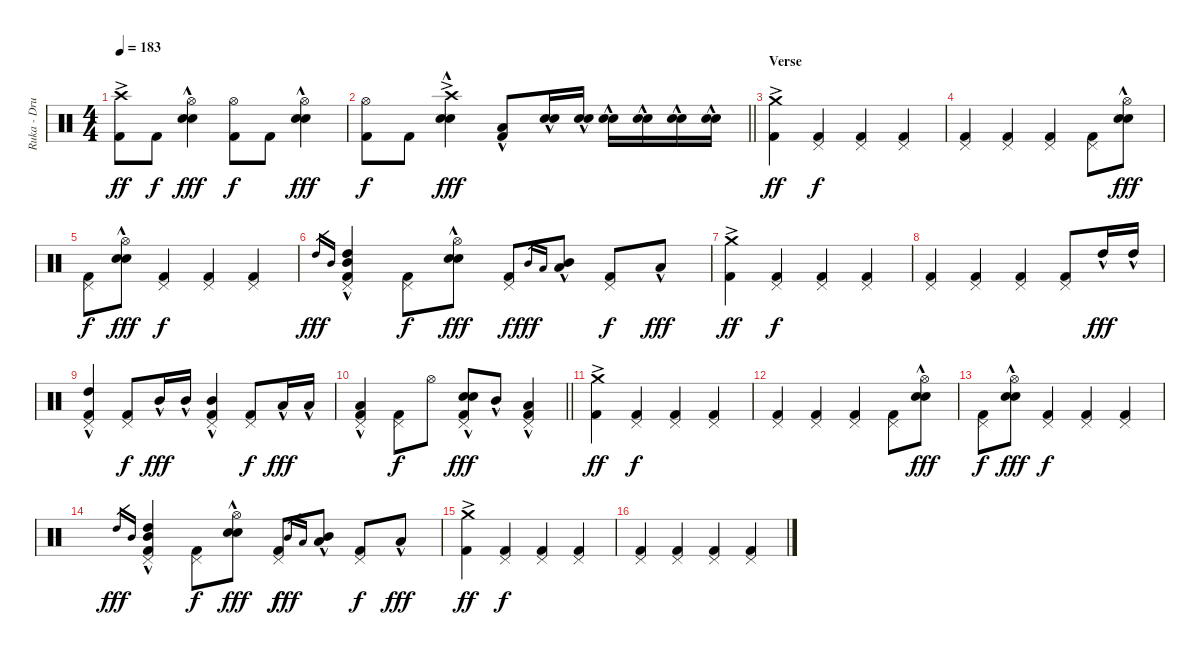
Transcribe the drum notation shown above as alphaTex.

\track ("Ruka - Drums" "Ruka - Dru") {instrument percussion}
\staff {score}
\articulation defaults
\ts (4 4)
\tempo 183
\clef neutral
\ks c
("Crash high (hit)"{ac} "Kick (hit) 2").8{dy ff} "Kick (hit) 2".8{dy f} ("Hi-Hat (open)" "Electric Snare (hit)"{hac} "Snare (hit) 2"{hac}).4{dy fff} ("Hi-Hat (open)" "Kick (hit) 2").8{dy f} "Kick (hit) 2".8 ("Hi-Hat (open)" "Electric Snare (hit)"{hac} "Snare (hit) 2"{hac}).4{dy fff} |
\barLineRight lightlight
("Hi-Hat (open)" "Kick (hit) 2").8{dy f} "Kick (hit) 2".8 ("Crash high (hit)"{ac} "Electric Snare (hit)"{hac} "Snare (hit) 2"{hac}).4{dy fff} ("Low Tom (hit)"{hac} "Kick (hit) 2").8 ("Electric Snare (hit)"{hac} "Snare (hit) 2"{hac}).16 ("Electric Snare (hit)"{hac} "Snare (hit) 2"{hac}).16 ("Electric Snare (hit)"{hac} "Snare (hit) 2"{hac}).16 ("Electric Snare (hit)"{hac} "Snare (hit) 2"{hac}).16 ("Electric Snare (hit)"{hac} "Snare (hit) 2"{hac}).16 ("Electric Snare (hit)"{hac} "Snare (hit) 2"{hac}).16 |
\section ("" "Verse")
("Crash medium (hit)"{ac} "Kick (hit) 2").4{dy ff} ("Pedal Hi-Hat (hit)" "Kick (hit) 2").4{dy f} ("Pedal Hi-Hat (hit)" "Kick (hit) 2").4 ("Pedal Hi-Hat (hit)" "Kick (hit) 2").4 |
("Pedal Hi-Hat (hit)" "Kick (hit) 2").4 ("Pedal Hi-Hat (hit)" "Kick (hit) 2").4 ("Pedal Hi-Hat (hit)" "Kick (hit) 2").4 ("Pedal Hi-Hat (hit)" "Kick (hit) 2").8 ("Hi-Hat (open)" "Electric Snare (hit)"{hac} "Snare (hit) 2"{hac}).8{dy fff} |
("Pedal Hi-Hat (hit)" "Kick (hit) 2").8{dy f} ("Hi-Hat (open)" "Electric Snare (hit)"{hac} "Snare (hit) 2"{hac}).8{dy fff} ("Pedal Hi-Hat (hit)" "Kick (hit) 2").4{dy f} ("Pedal Hi-Hat (hit)" "Kick (hit) 2").4 ("Pedal Hi-Hat (hit)" "Kick (hit) 2").4 |
"High Tom (hit)".16{gr dy fff} "Mid Tom (hit)".16{gr} ("Pedal Hi-Hat (hit)" "High Tom (hit)"{hac} "Mid Tom (hit)"{hac} "Kick (hit) 2").4 ("Pedal Hi-Hat (hit)" "Kick (hit) 2").8{dy f} ("Hi-Hat (open)" "Electric Snare (hit)"{hac} "Snare (hit) 2"{hac}).8{dy fff} ("Pedal Hi-Hat (hit)" "Kick (hit) 2").8{dy f} "Mid Tom (hit)".16{gr dy fff} "Low Tom (hit)".16{gr} ("Mid Tom (hit)"{hac} "Low Tom (hit)"{hac}).8 ("Pedal Hi-Hat (hit)" "Kick (hit) 2").8{dy f} "Low Tom (hit)"{hac}.8{dy fff} |
("Crash medium (hit)"{ac} "Kick (hit) 2").4{dy ff} ("Pedal Hi-Hat (hit)" "Kick (hit) 2").4{dy f} ("Pedal Hi-Hat (hit)" "Kick (hit) 2").4 ("Pedal Hi-Hat (hit)" "Kick (hit) 2").4 |
("Pedal Hi-Hat (hit)" "Kick (hit) 2").4 ("Pedal Hi-Hat (hit)" "Kick (hit) 2").4 ("Pedal Hi-Hat (hit)" "Kick (hit) 2").4 ("Pedal Hi-Hat (hit)" "Kick (hit) 2").8 "High Tom (hit)"{hac}.16{dy fff} "High Tom (hit)"{hac}.16 |
("Pedal Hi-Hat (hit)" "High Tom (hit)"{hac} "Kick (hit) 2").4 ("Pedal Hi-Hat (hit)" "Kick (hit) 2").8{dy f} "Mid Tom (hit)"{hac}.16{dy fff} "Mid Tom (hit)"{hac}.16 ("Pedal Hi-Hat (hit)" "Mid Tom (hit)"{hac} "Kick (hit) 2").4 ("Pedal Hi-Hat (hit)" "Kick (hit) 2").8{dy f} "Low Tom (hit)"{hac}.16{dy fff} "Low Tom (hit)"{hac}.16 |
\barLineRight lightlight
("Pedal Hi-Hat (hit)" "Low Tom (hit)"{hac} "Kick (hit) 2").4 ("Pedal Hi-Hat (hit)" "Kick (hit) 2").8{dy f} "Hi-Hat (open)".8 ("Pedal Hi-Hat (hit)" "Electric Snare (hit)" "Snare (hit) 2"{hac} "Kick (hit) 2").8{dy fff} "Mid Tom (hit)"{hac}.8 ("Pedal Hi-Hat (hit)" "Low Tom (hit)"{hac} "Kick (hit) 2").4 |
\section ("" "")
("Crash medium (hit)"{ac} "Kick (hit) 2").4{dy ff} ("Pedal Hi-Hat (hit)" "Kick (hit) 2").4{dy f} ("Pedal Hi-Hat (hit)" "Kick (hit) 2").4 ("Pedal Hi-Hat (hit)" "Kick (hit) 2").4 |
("Pedal Hi-Hat (hit)" "Kick (hit) 2").4 ("Pedal Hi-Hat (hit)" "Kick (hit) 2").4 ("Pedal Hi-Hat (hit)" "Kick (hit) 2").4 ("Pedal Hi-Hat (hit)" "Kick (hit) 2").8 ("Hi-Hat (open)" "Electric Snare (hit)"{hac} "Snare (hit) 2"{hac}).8{dy fff} |
("Pedal Hi-Hat (hit)" "Kick (hit) 2").8{dy f} ("Hi-Hat (open)" "Electric Snare (hit)"{hac} "Snare (hit) 2"{hac}).8{dy fff} ("Pedal Hi-Hat (hit)" "Kick (hit) 2").4{dy f} ("Pedal Hi-Hat (hit)" "Kick (hit) 2").4 ("Pedal Hi-Hat (hit)" "Kick (hit) 2").4 |
"High Tom (hit)".16{gr dy fff} "Mid Tom (hit)".16{gr} ("Pedal Hi-Hat (hit)" "High Tom (hit)"{hac} "Mid Tom (hit)"{hac} "Kick (hit) 2").4 ("Pedal Hi-Hat (hit)" "Kick (hit) 2").8{dy f} ("Hi-Hat (open)" "Electric Snare (hit)"{hac} "Snare (hit) 2"{hac}).8{dy fff} ("Pedal Hi-Hat (hit)" "Kick (hit) 2").8{dy f} "Mid Tom (hit)".16{gr dy fff} "Low Tom (hit)".16{gr} ("Mid Tom (hit)"{hac} "Low Tom (hit)"{hac}).8 ("Pedal Hi-Hat (hit)" "Kick (hit) 2").8{dy f} "Low Tom (hit)"{hac}.8{dy fff} |
("Crash medium (hit)"{ac} "Kick (hit) 2").4{dy ff} ("Pedal Hi-Hat (hit)" "Kick (hit) 2").4{dy f} ("Pedal Hi-Hat (hit)" "Kick (hit) 2").4 ("Pedal Hi-Hat (hit)" "Kick (hit) 2").4 |
("Pedal Hi-Hat (hit)" "Kick (hit) 2").4 ("Pedal Hi-Hat (hit)" "Kick (hit) 2").4 ("Pedal Hi-Hat (hit)" "Kick (hit) 2").4 ("Pedal Hi-Hat (hit)" "Kick (hit) 2").4
